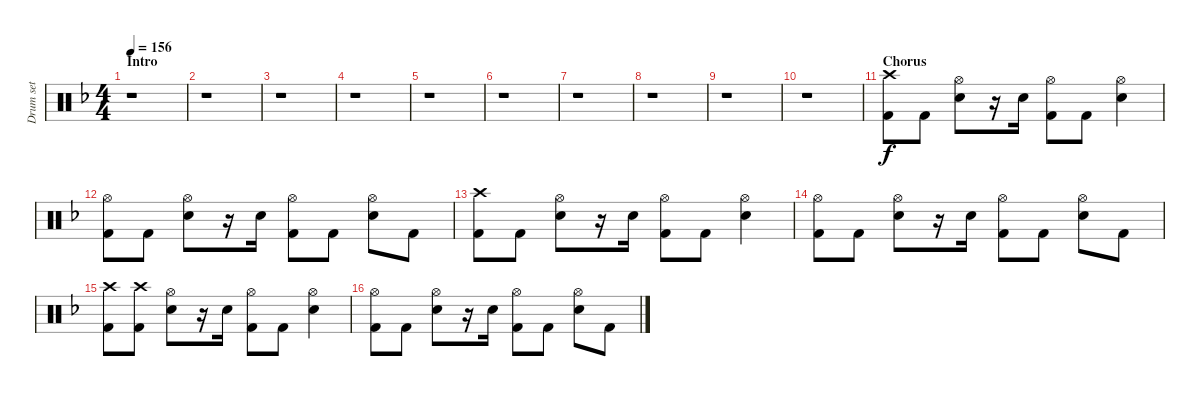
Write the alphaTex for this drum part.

\track ("Drum set" "Drum set") {instrument percussion}
\staff {score}
\articulation defaults
\ts (4 4)
\section ("" "Intro")
\tempo 156
\clef neutral
\ks f
r.1{dy f} |
r.1 |
r.1 |
r.1 |
r.1 |
r.1 |
r.1 |
r.1 |
r.1 |
r.1 |
\section ("" "Chorus")
("Crash high (hit)" "Kick (hit) 2").8 "Kick (hit) 2".8 ("Hi-Hat (open)" "Electric Snare (hit)").8 r.16 "Electric Snare (hit)".16 ("Hi-Hat (open)" "Kick (hit) 2").8 "Kick (hit) 2".8 ("Hi-Hat (open)" "Electric Snare (hit)").4 |
("Hi-Hat (open)" "Kick (hit) 2").8 "Kick (hit) 2".8 ("Hi-Hat (open)" "Electric Snare (hit)").8 r.16 "Electric Snare (hit)".16 ("Hi-Hat (open)" "Kick (hit) 2").8 "Kick (hit) 2".8 ("Hi-Hat (open)" "Electric Snare (hit)").8 "Kick (hit) 2".8 |
("Crash high (hit)" "Kick (hit) 2").8 "Kick (hit) 2".8 ("Hi-Hat (open)" "Electric Snare (hit)").8 r.16 "Electric Snare (hit)".16 ("Hi-Hat (open)" "Kick (hit) 2").8 "Kick (hit) 2".8 ("Hi-Hat (open)" "Electric Snare (hit)").4 |
("Hi-Hat (open)" "Kick (hit) 2").8 "Kick (hit) 2".8 ("Hi-Hat (open)" "Electric Snare (hit)").8 r.16 "Electric Snare (hit)".16 ("Hi-Hat (open)" "Kick (hit) 2").8 "Kick (hit) 2".8 ("Hi-Hat (open)" "Electric Snare (hit)").8 "Kick (hit) 2".8 |
("Crash high (hit)" "Kick (hit) 2").8 ("Crash high (hit)" "Kick (hit) 2").8 ("Hi-Hat (open)" "Electric Snare (hit)").8 r.16 "Electric Snare (hit)".16 ("Hi-Hat (open)" "Kick (hit) 2").8 "Kick (hit) 2".8 ("Hi-Hat (open)" "Electric Snare (hit)").4 |
("Hi-Hat (open)" "Kick (hit) 2").8 "Kick (hit) 2".8 ("Hi-Hat (open)" "Electric Snare (hit)").8 r.16 "Electric Snare (hit)".16 ("Hi-Hat (open)" "Kick (hit) 2").8 "Kick (hit) 2".8 ("Hi-Hat (open)" "Electric Snare (hit)").8 "Kick (hit) 2".8
